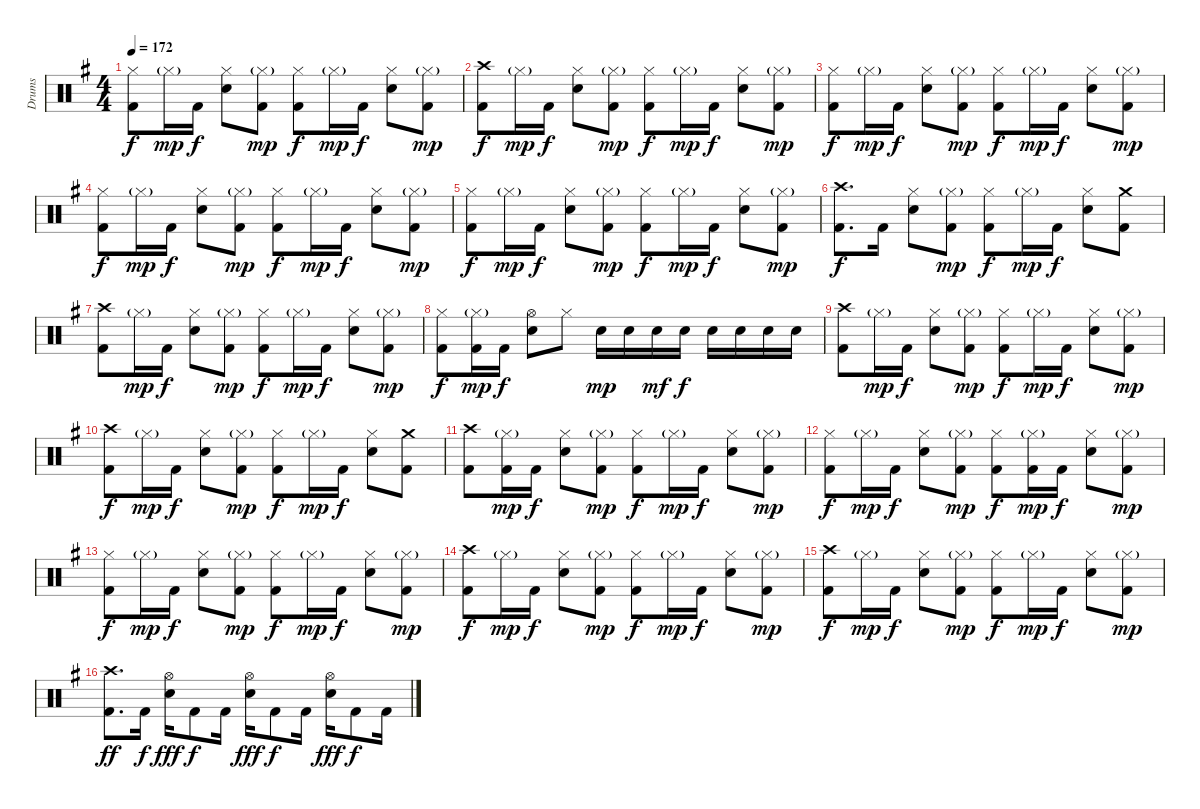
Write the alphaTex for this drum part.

\track ("Drums" "Drums") {instrument percussion}
\staff {score}
\articulation defaults
\ts (4 4)
\tempo 172
\clef neutral
\ks g
("Hi-Hat (closed)" "Kick (hit) 2").8{dy f} "Hi-Hat (closed)"{g}.16{dy mp} "Kick (hit) 2".16{dy f} ("Hi-Hat (closed)" "Snare (hit) 2").8 ("Hi-Hat (closed)"{g} "Kick (hit) 2").8{dy mp} ("Hi-Hat (closed)" "Kick (hit) 2").8{dy f} "Hi-Hat (closed)"{g}.16{dy mp} "Kick (hit) 2".16{dy f} ("Hi-Hat (closed)" "Snare (hit) 2").8 ("Hi-Hat (closed)"{g} "Kick (hit) 2").8{dy mp} |
("Crash high (hit)" "Kick (hit) 2").8{dy f} "Hi-Hat (closed)"{g}.16{dy mp} "Kick (hit) 2".16{dy f} ("Hi-Hat (closed)" "Snare (hit) 2").8 ("Hi-Hat (closed)"{g} "Kick (hit) 2").8{dy mp} ("Hi-Hat (closed)" "Kick (hit) 2").8{dy f} "Hi-Hat (closed)"{g}.16{dy mp} "Kick (hit) 2".16{dy f} ("Hi-Hat (closed)" "Snare (hit) 2").8 ("Hi-Hat (closed)"{g} "Kick (hit) 2").8{dy mp} |
("Hi-Hat (closed)" "Kick (hit) 2").8{dy f} "Hi-Hat (closed)"{g}.16{dy mp} "Kick (hit) 2".16{dy f} ("Hi-Hat (closed)" "Snare (hit) 2").8 ("Hi-Hat (closed)"{g} "Kick (hit) 2").8{dy mp} ("Hi-Hat (closed)" "Kick (hit) 2").8{dy f} "Hi-Hat (closed)"{g}.16{dy mp} "Kick (hit) 2".16{dy f} ("Hi-Hat (closed)" "Snare (hit) 2").8 ("Hi-Hat (closed)"{g} "Kick (hit) 2").8{dy mp} |
("Hi-Hat (closed)" "Kick (hit) 2").8{dy f} "Hi-Hat (closed)"{g}.16{dy mp} "Kick (hit) 2".16{dy f} ("Hi-Hat (closed)" "Snare (hit) 2").8 ("Hi-Hat (closed)"{g} "Kick (hit) 2").8{dy mp} ("Hi-Hat (closed)" "Kick (hit) 2").8{dy f} "Hi-Hat (closed)"{g}.16{dy mp} "Kick (hit) 2".16{dy f} ("Hi-Hat (closed)" "Snare (hit) 2").8 ("Hi-Hat (closed)"{g} "Kick (hit) 2").8{dy mp} |
("Hi-Hat (closed)" "Kick (hit) 2").8{dy f} "Hi-Hat (closed)"{g}.16{dy mp} "Kick (hit) 2".16{dy f} ("Hi-Hat (closed)" "Snare (hit) 2").8 ("Hi-Hat (closed)"{g} "Kick (hit) 2").8{dy mp} ("Hi-Hat (closed)" "Kick (hit) 2").8{dy f} "Hi-Hat (closed)"{g}.16{dy mp} "Kick (hit) 2".16{dy f} ("Hi-Hat (closed)" "Snare (hit) 2").8 ("Hi-Hat (closed)"{g} "Kick (hit) 2").8{dy mp} |
("Crash high (hit)" "Kick (hit) 2").8{d dy f} "Kick (hit) 2".16 ("Hi-Hat (closed)" "Snare (hit) 2").8 ("Hi-Hat (closed)"{g} "Kick (hit) 2").8{dy mp} ("Hi-Hat (closed)" "Kick (hit) 2").8{dy f} "Hi-Hat (closed)"{g}.16{dy mp} "Kick (hit) 2".16{dy f} ("Hi-Hat (closed)" "Snare (hit) 2").8 ("Crash medium (hit)" "Kick (hit) 2").8 |
("Crash high (hit)" "Kick (hit) 2").8 "Hi-Hat (closed)"{g}.16{dy mp} "Kick (hit) 2".16{dy f} ("Hi-Hat (closed)" "Snare (hit) 2").8 ("Hi-Hat (closed)"{g} "Kick (hit) 2").8{dy mp} ("Hi-Hat (closed)" "Kick (hit) 2").8{dy f} "Hi-Hat (closed)"{g}.16{dy mp} "Kick (hit) 2".16{dy f} ("Hi-Hat (closed)" "Snare (hit) 2").8 ("Hi-Hat (closed)"{g} "Kick (hit) 2").8{dy mp} |
("Hi-Hat (closed)" "Kick (hit) 2").8{dy f} ("Hi-Hat (closed)"{g} "Kick (hit) 2").16{dy mp} "Kick (hit) 2".16{dy f} ("Hi-Hat (open)" "Snare (hit) 2").8 "Hi-Hat (closed)".8 "Snare (hit) 2".16{dy mp} "Snare (hit) 2".16 "Snare (hit) 2".16{dy mf} "Snare (hit) 2".16{dy f} "Snare (hit) 2".16 "Snare (hit) 2".16 "Snare (hit) 2".16 "Snare (hit) 2".16 |
("Crash high (hit)" "Kick (hit) 2").8 "Hi-Hat (closed)"{g}.16{dy mp} "Kick (hit) 2".16{dy f} ("Hi-Hat (closed)" "Snare (hit) 2").8 ("Hi-Hat (closed)"{g} "Kick (hit) 2").8{dy mp} ("Hi-Hat (closed)" "Kick (hit) 2").8{dy f} "Hi-Hat (closed)"{g}.16{dy mp} "Kick (hit) 2".16{dy f} ("Hi-Hat (closed)" "Snare (hit) 2").8 ("Hi-Hat (closed)"{g} "Kick (hit) 2").8{dy mp} |
("Crash high (hit)" "Kick (hit) 2").8{dy f} "Hi-Hat (closed)"{g}.16{dy mp} "Kick (hit) 2".16{dy f} ("Hi-Hat (closed)" "Snare (hit) 2").8 ("Hi-Hat (closed)"{g} "Kick (hit) 2").8{dy mp} ("Hi-Hat (closed)" "Kick (hit) 2").8{dy f} "Hi-Hat (closed)"{g}.16{dy mp} "Kick (hit) 2".16{dy f} ("Hi-Hat (closed)" "Snare (hit) 2").8 ("Crash medium (hit)" "Kick (hit) 2").8 |
("Crash high (hit)" "Kick (hit) 2").8 ("Hi-Hat (closed)"{g} "Kick (hit) 2").16{dy mp} "Kick (hit) 2".16{dy f} ("Hi-Hat (closed)" "Snare (hit) 2").8 ("Hi-Hat (closed)"{g} "Kick (hit) 2").8{dy mp} ("Hi-Hat (closed)" "Kick (hit) 2").8{dy f} "Hi-Hat (closed)"{g}.16{dy mp} "Kick (hit) 2".16{dy f} ("Hi-Hat (closed)" "Snare (hit) 2").8 ("Hi-Hat (closed)"{g} "Kick (hit) 2").8{dy mp} |
("Hi-Hat (closed)" "Kick (hit) 2").8{dy f} "Hi-Hat (closed)"{g}.16{dy mp} "Kick (hit) 2".16{dy f} ("Hi-Hat (closed)" "Snare (hit) 2").8 ("Hi-Hat (closed)"{g} "Kick (hit) 2").8{dy mp} ("Hi-Hat (closed)" "Kick (hit) 2").8{dy f} ("Hi-Hat (closed)"{g} "Kick (hit) 2").16{dy mp} "Kick (hit) 2".16{dy f} ("Hi-Hat (closed)" "Snare (hit) 2").8 ("Hi-Hat (closed)"{g} "Kick (hit) 2").8{dy mp} |
("Hi-Hat (closed)" "Kick (hit) 2").8{dy f} "Hi-Hat (closed)"{g}.16{dy mp} "Kick (hit) 2".16{dy f} ("Hi-Hat (closed)" "Snare (hit) 2").8 ("Hi-Hat (closed)"{g} "Kick (hit) 2").8{dy mp} ("Hi-Hat (closed)" "Kick (hit) 2").8{dy f} "Hi-Hat (closed)"{g}.16{dy mp} "Kick (hit) 2".16{dy f} ("Hi-Hat (closed)" "Snare (hit) 2").8 ("Hi-Hat (closed)"{g} "Kick (hit) 2").8{dy mp} |
("Crash high (hit)" "Kick (hit) 2").8{dy f} "Hi-Hat (closed)"{g}.16{dy mp} "Kick (hit) 2".16{dy f} ("Hi-Hat (closed)" "Snare (hit) 2").8 ("Hi-Hat (closed)"{g} "Kick (hit) 2").8{dy mp} ("Hi-Hat (closed)" "Kick (hit) 2").8{dy f} "Hi-Hat (closed)"{g}.16{dy mp} "Kick (hit) 2".16{dy f} ("Hi-Hat (closed)" "Snare (hit) 2").8 ("Hi-Hat (closed)"{g} "Kick (hit) 2").8{dy mp} |
("Crash high (hit)" "Kick (hit) 2").8{dy f} "Hi-Hat (closed)"{g}.16{dy mp} "Kick (hit) 2".16{dy f} ("Hi-Hat (closed)" "Snare (hit) 2").8 ("Hi-Hat (closed)"{g} "Kick (hit) 2").8{dy mp} ("Hi-Hat (closed)" "Kick (hit) 2").8{dy f} "Hi-Hat (closed)"{g}.16{dy mp} "Kick (hit) 2".16{dy f} ("Hi-Hat (closed)" "Snare (hit) 2").8 ("Hi-Hat (closed)"{g} "Kick (hit) 2").8{dy mp} |
("Crash high (hit)" "Kick (hit) 2").8{d dy ff} "Kick (hit) 2".16{dy f} ("Hi-Hat (open)" "Snare (hit) 2").16{dy fff} "Kick (hit) 2".8{dy f} "Kick (hit) 2".16 ("Hi-Hat (open)" "Snare (hit) 2").16{dy fff} "Kick (hit) 2".8{dy f} "Kick (hit) 2".16 ("Hi-Hat (open)" "Snare (hit) 2").16{dy fff} "Kick (hit) 2".8{dy f} "Kick (hit) 2".16
